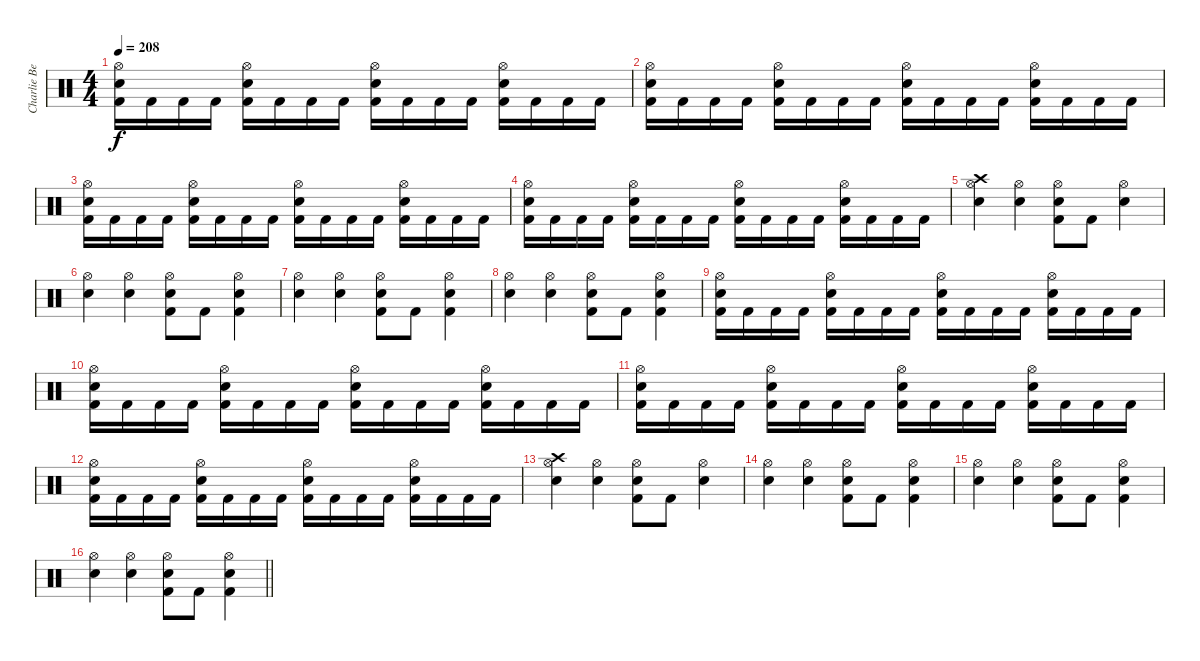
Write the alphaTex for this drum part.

\track ("Charlie Benate" "Charlie Be") {instrument percussion}
\staff {score}
\articulation defaults
\ts (4 4)
\tempo 208
\clef neutral
\ks c
("Hi-Hat (open)" "Electric Snare (hit)" "Kick (hit) 2").16{dy f} "Kick (hit) 2".16 "Kick (hit) 2".16 "Kick (hit) 2".16 ("Hi-Hat (open)" "Electric Snare (hit)" "Kick (hit) 2").16 "Kick (hit) 2".16 "Kick (hit) 2".16 "Kick (hit) 2".16 ("Hi-Hat (open)" "Electric Snare (hit)" "Kick (hit) 2").16 "Kick (hit) 2".16 "Kick (hit) 2".16 "Kick (hit) 2".16 ("Hi-Hat (open)" "Electric Snare (hit)" "Kick (hit) 2").16 "Kick (hit) 2".16 "Kick (hit) 2".16 "Kick (hit) 2".16 |
("Hi-Hat (open)" "Electric Snare (hit)" "Kick (hit) 2").16 "Kick (hit) 2".16 "Kick (hit) 2".16 "Kick (hit) 2".16 ("Hi-Hat (open)" "Electric Snare (hit)" "Kick (hit) 2").16 "Kick (hit) 2".16 "Kick (hit) 2".16 "Kick (hit) 2".16 ("Hi-Hat (open)" "Electric Snare (hit)" "Kick (hit) 2").16 "Kick (hit) 2".16 "Kick (hit) 2".16 "Kick (hit) 2".16 ("Hi-Hat (open)" "Electric Snare (hit)" "Kick (hit) 2").16 "Kick (hit) 2".16 "Kick (hit) 2".16 "Kick (hit) 2".16 |
("Hi-Hat (open)" "Electric Snare (hit)" "Kick (hit) 2").16 "Kick (hit) 2".16 "Kick (hit) 2".16 "Kick (hit) 2".16 ("Hi-Hat (open)" "Electric Snare (hit)" "Kick (hit) 2").16 "Kick (hit) 2".16 "Kick (hit) 2".16 "Kick (hit) 2".16 ("Hi-Hat (open)" "Electric Snare (hit)" "Kick (hit) 2").16 "Kick (hit) 2".16 "Kick (hit) 2".16 "Kick (hit) 2".16 ("Hi-Hat (open)" "Electric Snare (hit)" "Kick (hit) 2").16 "Kick (hit) 2".16 "Kick (hit) 2".16 "Kick (hit) 2".16 |
("Hi-Hat (open)" "Electric Snare (hit)" "Kick (hit) 2").16 "Kick (hit) 2".16 "Kick (hit) 2".16 "Kick (hit) 2".16 ("Hi-Hat (open)" "Electric Snare (hit)" "Kick (hit) 2").16 "Kick (hit) 2".16 "Kick (hit) 2".16 "Kick (hit) 2".16 ("Hi-Hat (open)" "Electric Snare (hit)" "Kick (hit) 2").16 "Kick (hit) 2".16 "Kick (hit) 2".16 "Kick (hit) 2".16 ("Hi-Hat (open)" "Electric Snare (hit)" "Kick (hit) 2").16 "Kick (hit) 2".16 "Kick (hit) 2".16 "Kick (hit) 2".16 |
("Hi-Hat (open)" "Electric Snare (hit)" "Crash high (hit)").4 ("Hi-Hat (open)" "Electric Snare (hit)").4 ("Hi-Hat (open)" "Electric Snare (hit)" "Kick (hit) 2").8 "Kick (hit) 2".8 ("Hi-Hat (open)" "Electric Snare (hit)").4 |
("Hi-Hat (open)" "Electric Snare (hit)").4 ("Hi-Hat (open)" "Electric Snare (hit)").4 ("Hi-Hat (open)" "Electric Snare (hit)" "Kick (hit) 2").8 "Kick (hit) 2".8 ("Hi-Hat (open)" "Electric Snare (hit)" "Kick (hit) 2").4 |
("Hi-Hat (open)" "Electric Snare (hit)").4 ("Hi-Hat (open)" "Electric Snare (hit)").4 ("Hi-Hat (open)" "Electric Snare (hit)" "Kick (hit) 2").8 "Kick (hit) 2".8 ("Hi-Hat (open)" "Electric Snare (hit)" "Kick (hit) 2").4 |
("Hi-Hat (open)" "Electric Snare (hit)").4 ("Hi-Hat (open)" "Electric Snare (hit)").4 ("Hi-Hat (open)" "Electric Snare (hit)" "Kick (hit) 2").8 "Kick (hit) 2".8 ("Hi-Hat (open)" "Electric Snare (hit)" "Kick (hit) 2").4 |
("Hi-Hat (open)" "Electric Snare (hit)" "Kick (hit) 2").16 "Kick (hit) 2".16 "Kick (hit) 2".16 "Kick (hit) 2".16 ("Hi-Hat (open)" "Electric Snare (hit)" "Kick (hit) 2").16 "Kick (hit) 2".16 "Kick (hit) 2".16 "Kick (hit) 2".16 ("Hi-Hat (open)" "Electric Snare (hit)" "Kick (hit) 2").16 "Kick (hit) 2".16 "Kick (hit) 2".16 "Kick (hit) 2".16 ("Hi-Hat (open)" "Electric Snare (hit)" "Kick (hit) 2").16 "Kick (hit) 2".16 "Kick (hit) 2".16 "Kick (hit) 2".16 |
("Hi-Hat (open)" "Electric Snare (hit)" "Kick (hit) 2").16 "Kick (hit) 2".16 "Kick (hit) 2".16 "Kick (hit) 2".16 ("Hi-Hat (open)" "Electric Snare (hit)" "Kick (hit) 2").16 "Kick (hit) 2".16 "Kick (hit) 2".16 "Kick (hit) 2".16 ("Hi-Hat (open)" "Electric Snare (hit)" "Kick (hit) 2").16 "Kick (hit) 2".16 "Kick (hit) 2".16 "Kick (hit) 2".16 ("Hi-Hat (open)" "Electric Snare (hit)" "Kick (hit) 2").16 "Kick (hit) 2".16 "Kick (hit) 2".16 "Kick (hit) 2".16 |
("Hi-Hat (open)" "Electric Snare (hit)" "Kick (hit) 2").16 "Kick (hit) 2".16 "Kick (hit) 2".16 "Kick (hit) 2".16 ("Hi-Hat (open)" "Electric Snare (hit)" "Kick (hit) 2").16 "Kick (hit) 2".16 "Kick (hit) 2".16 "Kick (hit) 2".16 ("Hi-Hat (open)" "Electric Snare (hit)" "Kick (hit) 2").16 "Kick (hit) 2".16 "Kick (hit) 2".16 "Kick (hit) 2".16 ("Hi-Hat (open)" "Electric Snare (hit)" "Kick (hit) 2").16 "Kick (hit) 2".16 "Kick (hit) 2".16 "Kick (hit) 2".16 |
("Hi-Hat (open)" "Electric Snare (hit)" "Kick (hit) 2").16 "Kick (hit) 2".16 "Kick (hit) 2".16 "Kick (hit) 2".16 ("Hi-Hat (open)" "Electric Snare (hit)" "Kick (hit) 2").16 "Kick (hit) 2".16 "Kick (hit) 2".16 "Kick (hit) 2".16 ("Hi-Hat (open)" "Electric Snare (hit)" "Kick (hit) 2").16 "Kick (hit) 2".16 "Kick (hit) 2".16 "Kick (hit) 2".16 ("Hi-Hat (open)" "Electric Snare (hit)" "Kick (hit) 2").16 "Kick (hit) 2".16 "Kick (hit) 2".16 "Kick (hit) 2".16 |
("Hi-Hat (open)" "Electric Snare (hit)" "Crash high (hit)").4 ("Hi-Hat (open)" "Electric Snare (hit)").4 ("Hi-Hat (open)" "Electric Snare (hit)" "Kick (hit) 2").8 "Kick (hit) 2".8 ("Hi-Hat (open)" "Electric Snare (hit)").4 |
("Hi-Hat (open)" "Electric Snare (hit)").4 ("Hi-Hat (open)" "Electric Snare (hit)").4 ("Hi-Hat (open)" "Electric Snare (hit)" "Kick (hit) 2").8 "Kick (hit) 2".8 ("Hi-Hat (open)" "Electric Snare (hit)" "Kick (hit) 2").4 |
("Hi-Hat (open)" "Electric Snare (hit)").4 ("Hi-Hat (open)" "Electric Snare (hit)").4 ("Hi-Hat (open)" "Electric Snare (hit)" "Kick (hit) 2").8 "Kick (hit) 2".8 ("Hi-Hat (open)" "Electric Snare (hit)" "Kick (hit) 2").4 |
\barLineRight lightlight
("Hi-Hat (open)" "Electric Snare (hit)").4 ("Hi-Hat (open)" "Electric Snare (hit)").4 ("Hi-Hat (open)" "Electric Snare (hit)" "Kick (hit) 2").8 "Kick (hit) 2".8 ("Hi-Hat (open)" "Electric Snare (hit)" "Kick (hit) 2").4
